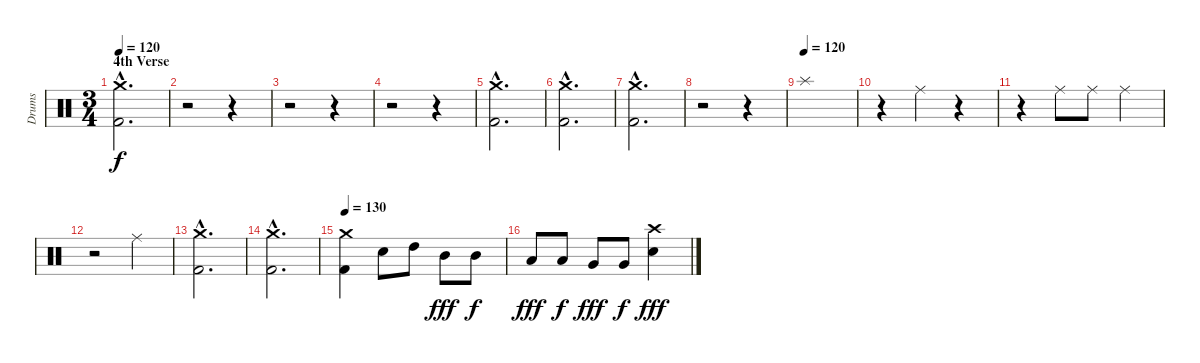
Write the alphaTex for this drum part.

\track ("Drums" "Drums") {instrument percussion}
\staff {score}
\articulation defaults
\ts (3 4)
\section ("" "4th Verse")
\tempo 120
\clef neutral
\ks c
("Kick (hit) 2"{hac} "Crash medium (hit)"{hac}).2{d dy f} |
r.2 r.4 |
r.2 r.4 |
r.2 r.4 |
("Kick (hit) 2"{hac} "Crash medium (hit)"{hac}).2{d} |
("Kick (hit) 2"{hac} "Crash medium (hit)"{hac}).2{d} |
("Kick (hit) 2"{hac} "Crash medium (hit)"{hac}).2{d} |
r.2 r.4 |
\tempo (120)
"Splash (hit)".1 |
r.4 "Ride (middle)".4 r.4 |
r.4 "Ride (middle)".8 "Ride (middle)".8 "Ride (middle)".4 |
r.2 "Ride (middle)".4 |
("Kick (hit) 2"{hac} "Crash medium (hit)"{hac}).2{d} |
("Kick (hit) 2"{hac} "Crash medium (hit)"{hac}).2{d} |
\tempo 130
("Kick (hit) 2" "Crash medium (hit)").4 "Electric Snare (hit)".8 "High Tom (hit)".8 "Mid Tom (hit)".8{dy fff} "Mid Tom (hit)".8{dy f} |
"Low Tom (hit)".8{dy fff} "Low Tom (hit)".8{dy f} "Very Low Tom (hit)".8{dy fff} "Very Low Tom (hit)".8{dy f} ("Electric Snare (hit)" "Crash high (hit)").4{dy fff}
